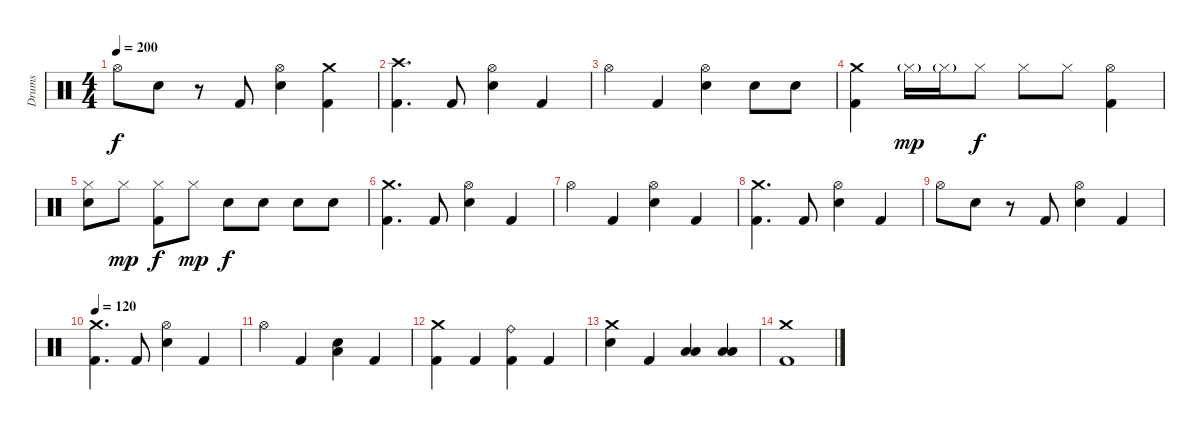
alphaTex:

\track ("Drums" "Drums") {instrument percussion}
\staff {score}
\articulation defaults
\ts (4 4)
\tempo 200
\clef neutral
\ks c "Hi-Hat (open)".8{dy f} "Electric Snare (hit)".8
r.8 "Kick (hit) 2".8 ("Hi-Hat (open)" "Electric Snare (hit)").4 ("Kick (hit) 2" "Crash medium (hit)").4 |
("Crash high (hit)" "Kick (hit) 2").4{d} "Kick (hit) 2".8 ("Hi-Hat (open)" "Electric Snare (hit)").4 "Kick (hit) 2".4 |
"Hi-Hat (open)".4 "Kick (hit) 2".4 ("Hi-Hat (open)" "Electric Snare (hit)").4 "Electric Snare (hit)".8 "Electric Snare (hit)".8 |
("Crash medium (hit)" "Kick (hit) 2").4 "Hi-Hat (closed)"{g}.16{dy mp} "Hi-Hat (closed)"{g}.16 "Hi-Hat (closed)".8{dy f} "Hi-Hat (closed)".8 "Hi-Hat (closed)".8 ("Kick (hit) 2" "Hi-Hat (open)").4 |
("Hi-Hat (closed)" "Electric Snare (hit)").8 "Hi-Hat (closed)".8{dy mp} ("Kick (hit) 2" "Hi-Hat (closed)").8{dy f} "Hi-Hat (closed)".8{dy mp} "Electric Snare (hit)".8{dy f} "Electric Snare (hit)".8 "Electric Snare (hit)".8 "Electric Snare (hit)".8 |
("Crash medium (hit)" "Kick (hit) 2").4{d} "Kick (hit) 2".8 ("Hi-Hat (open)" "Electric Snare (hit)").4 "Kick (hit) 2".4 |
"Hi-Hat (open)".4 "Kick (hit) 2".4 ("Hi-Hat (open)" "Electric Snare (hit)").4 "Kick (hit) 2".4 |
("Crash medium (hit)" "Kick (hit) 2").4{d} "Kick (hit) 2".8 ("Hi-Hat (open)" "Electric Snare (hit)").4 "Kick (hit) 2".4 |
"Hi-Hat (open)".8 "Electric Snare (hit)".8 r.8 "Kick (hit) 2".8 ("Hi-Hat (open)" "Electric Snare (hit)").4 "Kick (hit) 2".4 |
\tempo 120
("Crash medium (hit)" "Kick (hit) 2").4{d} "Kick (hit) 2".8 ("Hi-Hat (open)" "Electric Snare (hit)").4 "Kick (hit) 2".4 |
"Hi-Hat (open)".4 "Kick (hit) 2".4 ("Electric Snare (hit)" "Low Floor Tom (hit)").4 "Kick (hit) 2".4 |
("Kick (hit) 2" "Crash medium (hit)").4 "Kick (hit) 2".4 ("Kick (hit) 2" "Ride (bell)").4 "Kick (hit) 2".4 |
("Crash medium (hit)" "Electric Snare (hit)").4 "Kick (hit) 2".4 ("Low Tom (hit)" "Low Floor Tom (hit)").4 ("Low Tom (hit)" "Low Floor Tom (hit)").4 |
("Crash medium (hit)" "Kick (hit) 2").1
